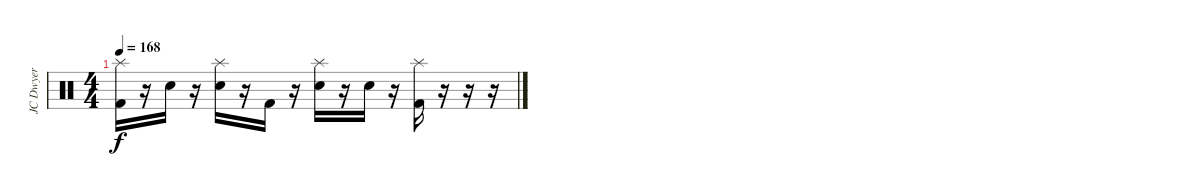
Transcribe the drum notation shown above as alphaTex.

\track ("JC Dwyer" "JC Dwyer") {instrument percussion}
\staff {score}
\articulation defaults
\ts (4 4)
\tempo 168
\clef neutral
\ks c
("Splash (hit)" "Kick (hit) 2").16{dy f} r.16 "Electric Snare (hit)".16 r.16 ("Splash (hit)" "Electric Snare (hit)").16 r.16 "Kick (hit) 2".16 r.16 ("Splash (hit)" "Electric Snare (hit)").16 r.16 "Electric Snare (hit)".16 r.16 ("Splash (hit)" "Kick (hit) 2").16 r.16 r.16 r.16
